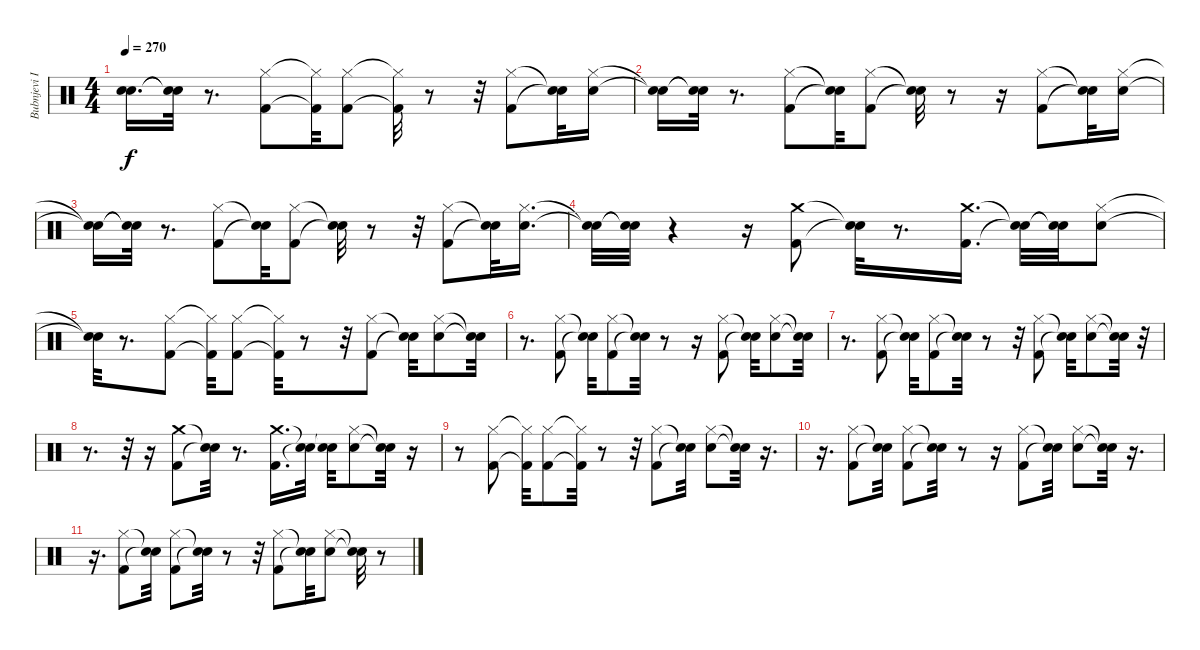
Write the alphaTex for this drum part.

\track ("Bubnjevi Ipe Ivandic" "Bubnjevi I") {instrument percussion}
\staff {score}
\articulation defaults
\ts (4 4)
\tempo 270
\clef neutral
\ks c
("Snare (hit)"{t} "Snare (hit)"{t}).16{d dy f} ("Snare (hit)"{t} "Snare (hit)"{t}).32 r.8{d} ("Kick (hit) 2" "Hi-Hat (closed)").8 ("Kick (hit) 2"{t} "Hi-Hat (closed)"{t}).32 ("Kick (hit) 2" "Hi-Hat (closed)").8 ("Kick (hit) 2"{t} "Hi-Hat (closed)"{t}).32 r.8 r.32 ("Kick (hit) 2" "Hi-Hat (closed)").8 ("Snare (hit)"{t} "Snare (hit)"{t}).32 ("Hi-Hat (closed)" "Snare (hit) 2").16 |
("Snare (hit)"{t} "Snare (hit)"{t}).16 ("Snare (hit)"{t} "Snare (hit)"{t}).32 r.8{d} ("Kick (hit) 2" "Hi-Hat (closed)").8 ("Snare (hit)"{t} "Snare (hit)"{t}).32 ("Kick (hit) 2" "Hi-Hat (closed)").8 ("Snare (hit)"{t} "Snare (hit)"{t}).32 r.8 r.16 ("Kick (hit) 2" "Hi-Hat (closed)").8 ("Snare (hit)"{t} "Snare (hit)"{t}).32 ("Hi-Hat (closed)" "Snare (hit) 2").16 |
("Snare (hit)"{t} "Snare (hit)"{t}).16 ("Snare (hit)"{t} "Snare (hit)"{t}).32 r.8{d} ("Kick (hit) 2" "Hi-Hat (closed)").8 ("Snare (hit)"{t} "Snare (hit)"{t}).32 ("Kick (hit) 2" "Hi-Hat (closed)").8 ("Snare (hit)"{t} "Snare (hit)"{t}).32 r.8 r.32 ("Kick (hit) 2" "Hi-Hat (closed)").8 ("Snare (hit)"{t} "Snare (hit)"{t}).32 ("Hi-Hat (closed)" "Snare (hit) 2").16{d} |
("Snare (hit)"{t} "Snare (hit)"{t}).32 ("Snare (hit)"{t} "Snare (hit)"{t}).32 r.4 r.16 ("Kick (hit) 2" "Crash medium (hit)").8 ("Snare (hit)"{t} "Snare (hit)"{t}).32 r.8{d} ("Kick (hit) 2" "Crash medium (hit)").16{d} ("Snare (hit)"{t} "Snare (hit)"{t}).32 ("Snare (hit)"{t} "Snare (hit)"{t}).32 ("Hi-Hat (closed)" "Snare (hit) 2").8 |
("Snare (hit)"{t} "Snare (hit)"{t}).32 r.8{d} ("Kick (hit) 2" "Hi-Hat (closed)").8 ("Kick (hit) 2"{t} "Hi-Hat (closed)"{t}).32 ("Kick (hit) 2" "Hi-Hat (closed)").8 ("Kick (hit) 2"{t} "Hi-Hat (closed)"{t}).32 r.8 r.32 ("Kick (hit) 2" "Hi-Hat (closed)").8 ("Snare (hit)"{t} "Snare (hit)"{t}).32 ("Hi-Hat (closed)" "Snare (hit) 2").8 ("Snare (hit)"{t} "Snare (hit)"{t}).32 |
r.8{d} ("Kick (hit) 2" "Hi-Hat (closed)").8 ("Snare (hit)"{t} "Snare (hit)"{t}).32 ("Kick (hit) 2" "Hi-Hat (closed)").8 ("Snare (hit)"{t} "Snare (hit)"{t}).32 r.8 r.16 ("Kick (hit) 2" "Hi-Hat (closed)").8 ("Snare (hit)"{t} "Snare (hit)"{t}).32 ("Hi-Hat (closed)" "Snare (hit) 2").8 ("Snare (hit)"{t} "Snare (hit)"{t}).32 |
r.8{d} ("Kick (hit) 2" "Hi-Hat (closed)").8 ("Snare (hit)"{t} "Snare (hit)"{t}).32 ("Kick (hit) 2" "Hi-Hat (closed)").8 ("Snare (hit)"{t} "Snare (hit)"{t}).32 r.8 r.32 ("Kick (hit) 2" "Hi-Hat (closed)").8 ("Snare (hit)"{t} "Snare (hit)"{t}).32 ("Hi-Hat (closed)" "Snare (hit) 2").8 ("Snare (hit)"{t} "Snare (hit)"{t}).32 r.32 |
r.8{d} r.32 r.16 ("Kick (hit) 2" "Crash medium (hit)").8 ("Snare (hit)"{t} "Snare (hit)"{t}).32 r.8{d} ("Kick (hit) 2" "Crash medium (hit)").16{d} ("Snare (hit)"{t} "Snare (hit)"{t}).32 ("Snare (hit)"{t} "Snare (hit)"{t}).32 ("Hi-Hat (closed)" "Snare (hit) 2").8 ("Snare (hit)"{t} "Snare (hit)"{t}).32 r.16 |
r.8 ("Kick (hit) 2" "Hi-Hat (closed)").8 ("Kick (hit) 2"{t} "Hi-Hat (closed)"{t}).32 ("Kick (hit) 2" "Hi-Hat (closed)").8 ("Kick (hit) 2"{t} "Hi-Hat (closed)"{t}).32 r.8 r.32 ("Kick (hit) 2" "Hi-Hat (closed)").8 ("Snare (hit)"{t} "Snare (hit)"{t}).32 ("Hi-Hat (closed)" "Snare (hit) 2").8 ("Snare (hit)"{t} "Snare (hit)"{t}).32 r.16{d} |
r.16{d} ("Kick (hit) 2" "Hi-Hat (closed)").8 ("Snare (hit)"{t} "Snare (hit)"{t}).32 ("Kick (hit) 2" "Hi-Hat (closed)").8 ("Snare (hit)"{t} "Snare (hit)"{t}).32 r.8 r.16 ("Kick (hit) 2" "Hi-Hat (closed)").8 ("Snare (hit)"{t} "Snare (hit)"{t}).32 ("Hi-Hat (closed)" "Snare (hit) 2").8 ("Snare (hit)"{t} "Snare (hit)"{t}).32 r.16{d} |
r.16{d} ("Kick (hit) 2" "Hi-Hat (closed)").8 ("Snare (hit)"{t} "Snare (hit)"{t}).32 ("Kick (hit) 2" "Hi-Hat (closed)").8 ("Snare (hit)"{t} "Snare (hit)"{t}).32 r.8 r.32 ("Kick (hit) 2" "Hi-Hat (closed)").8 ("Snare (hit)"{t} "Snare (hit)"{t}).32 ("Hi-Hat (closed)" "Snare (hit) 2").8 ("Snare (hit)"{t} "Snare (hit)"{t}).32 r.8
